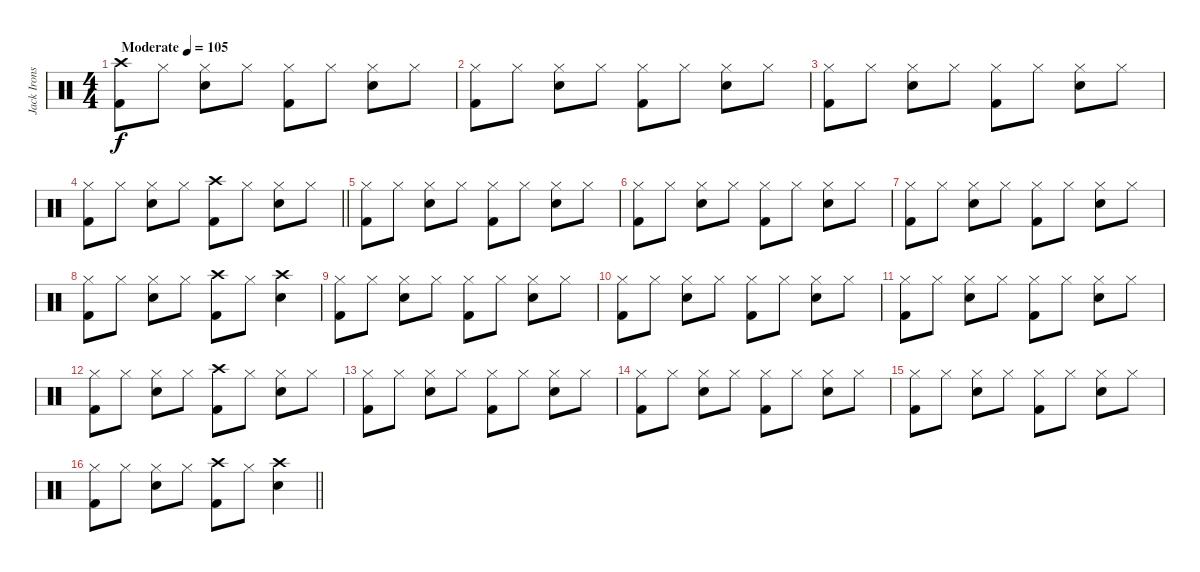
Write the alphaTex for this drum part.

\track ("Jack Irons" "Jack Irons") {instrument percussion}
\staff {score}
\articulation defaults
\ts (4 4)
\tempo (105 "Moderate")
\clef neutral
\ks c
("Crash high (hit)" "Kick (hit) 2").8{dy f} "Hi-Hat (closed)".8 ("Hi-Hat (closed)" "Snare (hit) 2").8 "Hi-Hat (closed)".8 ("Hi-Hat (closed)" "Kick (hit) 2").8 "Hi-Hat (closed)".8 ("Hi-Hat (closed)" "Snare (hit) 2").8 "Hi-Hat (closed)".8 |
("Hi-Hat (closed)" "Kick (hit) 2").8 "Hi-Hat (closed)".8 ("Hi-Hat (closed)" "Snare (hit) 2").8 "Hi-Hat (closed)".8 ("Hi-Hat (closed)" "Kick (hit) 2").8 "Hi-Hat (closed)".8 ("Hi-Hat (closed)" "Snare (hit) 2").8 "Hi-Hat (closed)".8 |
("Hi-Hat (closed)" "Kick (hit) 2").8 "Hi-Hat (closed)".8 ("Hi-Hat (closed)" "Snare (hit) 2").8 "Hi-Hat (closed)".8 ("Hi-Hat (closed)" "Kick (hit) 2").8 "Hi-Hat (closed)".8 ("Hi-Hat (closed)" "Snare (hit) 2").8 "Hi-Hat (closed)".8 |
\barLineRight lightlight
("Hi-Hat (closed)" "Kick (hit) 2").8 "Hi-Hat (closed)".8 ("Hi-Hat (closed)" "Snare (hit) 2").8 "Hi-Hat (closed)".8 ("Crash high (hit)" "Kick (hit) 2").8 "Hi-Hat (closed)".8 ("Hi-Hat (closed)" "Snare (hit) 2").8 "Hi-Hat (closed)".8 |
("Hi-Hat (closed)" "Kick (hit) 2").8 "Hi-Hat (closed)".8 ("Hi-Hat (closed)" "Snare (hit) 2").8 "Hi-Hat (closed)".8 ("Hi-Hat (closed)" "Kick (hit) 2").8 "Hi-Hat (closed)".8 ("Hi-Hat (closed)" "Snare (hit) 2").8 "Hi-Hat (closed)".8 |
("Hi-Hat (closed)" "Kick (hit) 2").8 "Hi-Hat (closed)".8 ("Hi-Hat (closed)" "Snare (hit) 2").8 "Hi-Hat (closed)".8 ("Hi-Hat (closed)" "Kick (hit) 2").8 "Hi-Hat (closed)".8 ("Hi-Hat (closed)" "Snare (hit) 2").8 "Hi-Hat (closed)".8 |
("Hi-Hat (closed)" "Kick (hit) 2").8 "Hi-Hat (closed)".8 ("Hi-Hat (closed)" "Snare (hit) 2").8 "Hi-Hat (closed)".8 ("Hi-Hat (closed)" "Kick (hit) 2").8 "Hi-Hat (closed)".8 ("Hi-Hat (closed)" "Snare (hit) 2").8 "Hi-Hat (closed)".8 |
("Hi-Hat (closed)" "Kick (hit) 2").8 "Hi-Hat (closed)".8 ("Hi-Hat (closed)" "Snare (hit) 2").8 "Hi-Hat (closed)".8 ("Crash high (hit)" "Kick (hit) 2").8 "Hi-Hat (closed)".8 ("Crash high (hit)" "Snare (hit) 2").4 |
("Hi-Hat (closed)" "Kick (hit) 2").8 "Hi-Hat (closed)".8 ("Hi-Hat (closed)" "Snare (hit) 2").8 "Hi-Hat (closed)".8 ("Hi-Hat (closed)" "Kick (hit) 2").8 "Hi-Hat (closed)".8 ("Hi-Hat (closed)" "Snare (hit) 2").8 "Hi-Hat (closed)".8 |
("Hi-Hat (closed)" "Kick (hit) 2").8 "Hi-Hat (closed)".8 ("Hi-Hat (closed)" "Snare (hit) 2").8 "Hi-Hat (closed)".8 ("Hi-Hat (closed)" "Kick (hit) 2").8 "Hi-Hat (closed)".8 ("Hi-Hat (closed)" "Snare (hit) 2").8 "Hi-Hat (closed)".8 |
("Hi-Hat (closed)" "Kick (hit) 2").8 "Hi-Hat (closed)".8 ("Hi-Hat (closed)" "Snare (hit) 2").8 "Hi-Hat (closed)".8 ("Hi-Hat (closed)" "Kick (hit) 2").8 "Hi-Hat (closed)".8 ("Hi-Hat (closed)" "Snare (hit) 2").8 "Hi-Hat (closed)".8 |
("Hi-Hat (closed)" "Kick (hit) 2").8 "Hi-Hat (closed)".8 ("Hi-Hat (closed)" "Snare (hit) 2").8 "Hi-Hat (closed)".8 ("Crash high (hit)" "Kick (hit) 2").8 "Hi-Hat (closed)".8 ("Hi-Hat (closed)" "Snare (hit) 2").8 "Hi-Hat (closed)".8 |
("Hi-Hat (closed)" "Kick (hit) 2").8 "Hi-Hat (closed)".8 ("Hi-Hat (closed)" "Snare (hit) 2").8 "Hi-Hat (closed)".8 ("Hi-Hat (closed)" "Kick (hit) 2").8 "Hi-Hat (closed)".8 ("Hi-Hat (closed)" "Snare (hit) 2").8 "Hi-Hat (closed)".8 |
("Hi-Hat (closed)" "Kick (hit) 2").8 "Hi-Hat (closed)".8 ("Hi-Hat (closed)" "Snare (hit) 2").8 "Hi-Hat (closed)".8 ("Hi-Hat (closed)" "Kick (hit) 2").8 "Hi-Hat (closed)".8 ("Hi-Hat (closed)" "Snare (hit) 2").8 "Hi-Hat (closed)".8 |
("Hi-Hat (closed)" "Kick (hit) 2").8 "Hi-Hat (closed)".8 ("Hi-Hat (closed)" "Snare (hit) 2").8 "Hi-Hat (closed)".8 ("Hi-Hat (closed)" "Kick (hit) 2").8 "Hi-Hat (closed)".8 ("Hi-Hat (closed)" "Snare (hit) 2").8 "Hi-Hat (closed)".8 |
\barLineRight lightlight
("Hi-Hat (closed)" "Kick (hit) 2").8 "Hi-Hat (closed)".8 ("Hi-Hat (closed)" "Snare (hit) 2").8 "Hi-Hat (closed)".8 ("Crash high (hit)" "Kick (hit) 2").8 "Hi-Hat (closed)".8 ("Crash high (hit)" "Snare (hit) 2").4
